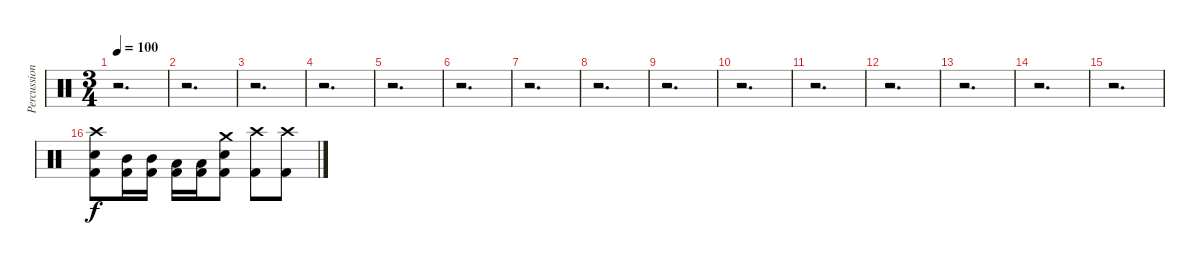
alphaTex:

\track ("Percussion" "Percussion") {instrument percussion}
\staff {score}
\articulation defaults
\ts (3 4)
\tempo 100
\clef neutral
\ks c
r.2{d dy f} |
r.2{d} |
r.2{d} |
r.2{d} |
r.2{d} |
r.2{d} |
r.2{d} |
r.2{d} |
r.2{d} |
r.2{d} |
r.2{d} |
r.2{d} |
r.2{d} |
r.2{d} |
r.2{d} |
("Crash high (hit)" "Electric Snare (hit)" "Kick (hit) 2").8 ("Mid Tom (hit)" "Kick (hit) 2").16 ("Mid Tom (hit)" "Kick (hit) 2").16 ("Low Tom (hit)" "Kick (hit) 2").16 ("Low Tom (hit)" "Kick (hit) 2").16 ("Crash medium (hit)" "Electric Snare (hit)" "Kick (hit) 2").8 ("Crash high (hit)" "Kick (hit) 2").8 ("Crash high (hit)" "Kick (hit) 2").8
